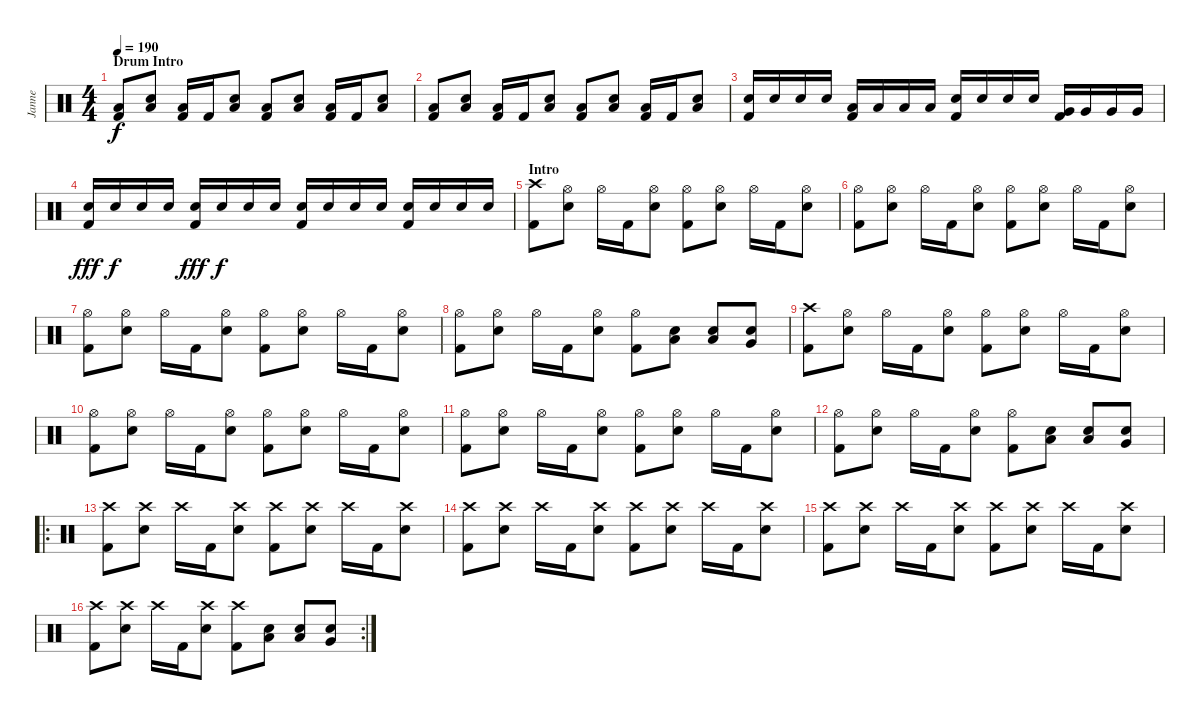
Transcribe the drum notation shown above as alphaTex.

\track ("Janne" "Janne") {instrument percussion}
\staff {score}
\articulation defaults
\ts (4 4)
\section ("" "Drum Intro")
\tempo 190
\clef neutral
\ks c
("Low Floor Tom (hit)" "Kick (hit) 2").8{dy f} ("Low Floor Tom (hit)" "Electric Snare (hit)").8 ("Low Floor Tom (hit)" "Kick (hit) 2").16 "Kick (hit) 2".16 ("Low Floor Tom (hit)" "Electric Snare (hit)").8 ("Low Floor Tom (hit)" "Kick (hit) 2").8 ("Low Floor Tom (hit)" "Electric Snare (hit)").8 ("Low Floor Tom (hit)" "Kick (hit) 2").16 "Kick (hit) 2".16 ("Low Floor Tom (hit)" "Electric Snare (hit)").8 |
("Low Floor Tom (hit)" "Kick (hit) 2").8 ("Low Floor Tom (hit)" "Electric Snare (hit)").8 ("Low Floor Tom (hit)" "Kick (hit) 2").16 "Kick (hit) 2".16 ("Low Floor Tom (hit)" "Electric Snare (hit)").8 ("Low Floor Tom (hit)" "Kick (hit) 2").8 ("Low Floor Tom (hit)" "Electric Snare (hit)").8 ("Low Floor Tom (hit)" "Kick (hit) 2").16 "Kick (hit) 2".16 ("Low Floor Tom (hit)" "Electric Snare (hit)").8 |
("Electric Snare (hit)" "Kick (hit) 2").16 "Electric Snare (hit)".16 "Electric Snare (hit)".16 "Electric Snare (hit)".16 ("Low Tom (hit)" "Kick (hit) 2").16 "Low Tom (hit)".16 "Low Tom (hit)".16 "Low Tom (hit)".16 ("Electric Snare (hit)" "Kick (hit) 2").16 "Electric Snare (hit)".16 "Electric Snare (hit)".16 "Electric Snare (hit)".16 ("Very Low Tom (hit)" "Kick (hit) 2").16 "Very Low Tom (hit)".16 "Very Low Tom (hit)".16 "Very Low Tom (hit)".16 |
("Electric Snare (hit)" "Kick (hit) 2").16{dy fff} "Electric Snare (hit)".16{dy f} "Electric Snare (hit)".16 "Electric Snare (hit)".16 ("Electric Snare (hit)" "Kick (hit) 2").16{dy fff} "Electric Snare (hit)".16{dy f} "Electric Snare (hit)".16 "Electric Snare (hit)".16 ("Electric Snare (hit)" "Kick (hit) 2").16 "Electric Snare (hit)".16 "Electric Snare (hit)".16 "Electric Snare (hit)".16 ("Electric Snare (hit)" "Kick (hit) 2").16 "Electric Snare (hit)".16 "Electric Snare (hit)".16 "Electric Snare (hit)".16 |
\section ("" "Intro")
("Crash high (hit)" "Kick (hit) 2").8 ("Hi-Hat (open)" "Electric Snare (hit)").8 "Hi-Hat (open)".16 "Kick (hit) 2".16 ("Hi-Hat (open)" "Electric Snare (hit)").8 ("Hi-Hat (open)" "Kick (hit) 2").8 ("Hi-Hat (open)" "Electric Snare (hit)").8 "Hi-Hat (open)".16 "Kick (hit) 2".16 ("Hi-Hat (open)" "Electric Snare (hit)").8 |
("Hi-Hat (open)" "Kick (hit) 2").8 ("Hi-Hat (open)" "Electric Snare (hit)").8 "Hi-Hat (open)".16 "Kick (hit) 2".16 ("Hi-Hat (open)" "Electric Snare (hit)").8 ("Hi-Hat (open)" "Kick (hit) 2").8 ("Hi-Hat (open)" "Electric Snare (hit)").8 "Hi-Hat (open)".16 "Kick (hit) 2".16 ("Hi-Hat (open)" "Electric Snare (hit)").8 |
("Hi-Hat (open)" "Kick (hit) 2").8 ("Hi-Hat (open)" "Electric Snare (hit)").8 "Hi-Hat (open)".16 "Kick (hit) 2".16 ("Hi-Hat (open)" "Electric Snare (hit)").8 ("Hi-Hat (open)" "Kick (hit) 2").8 ("Hi-Hat (open)" "Electric Snare (hit)").8 "Hi-Hat (open)".16 "Kick (hit) 2".16 ("Hi-Hat (open)" "Electric Snare (hit)").8 |
("Hi-Hat (open)" "Kick (hit) 2").8 ("Hi-Hat (open)" "Electric Snare (hit)").8 "Hi-Hat (open)".16 "Kick (hit) 2".16 ("Hi-Hat (open)" "Electric Snare (hit)").8 ("Hi-Hat (open)" "Kick (hit) 2").8 ("Low Tom (hit)" "Electric Snare (hit)").8 ("Low Tom (hit)" "Electric Snare (hit)").8 ("Very Low Tom (hit)" "Electric Snare (hit)").8 |
("Crash high (hit)" "Kick (hit) 2").8 ("Hi-Hat (open)" "Electric Snare (hit)").8 "Hi-Hat (open)".16 "Kick (hit) 2".16 ("Hi-Hat (open)" "Electric Snare (hit)").8 ("Hi-Hat (open)" "Kick (hit) 2").8 ("Hi-Hat (open)" "Electric Snare (hit)").8 "Hi-Hat (open)".16 "Kick (hit) 2".16 ("Hi-Hat (open)" "Electric Snare (hit)").8 |
("Hi-Hat (open)" "Kick (hit) 2").8 ("Hi-Hat (open)" "Electric Snare (hit)").8 "Hi-Hat (open)".16 "Kick (hit) 2".16 ("Hi-Hat (open)" "Electric Snare (hit)").8 ("Hi-Hat (open)" "Kick (hit) 2").8 ("Hi-Hat (open)" "Electric Snare (hit)").8 "Hi-Hat (open)".16 "Kick (hit) 2".16 ("Hi-Hat (open)" "Electric Snare (hit)").8 |
("Hi-Hat (open)" "Kick (hit) 2").8 ("Hi-Hat (open)" "Electric Snare (hit)").8 "Hi-Hat (open)".16 "Kick (hit) 2".16 ("Hi-Hat (open)" "Electric Snare (hit)").8 ("Hi-Hat (open)" "Kick (hit) 2").8 ("Hi-Hat (open)" "Electric Snare (hit)").8 "Hi-Hat (open)".16 "Kick (hit) 2".16 ("Hi-Hat (open)" "Electric Snare (hit)").8 |
("Hi-Hat (open)" "Kick (hit) 2").8 ("Hi-Hat (open)" "Electric Snare (hit)").8 "Hi-Hat (open)".16 "Kick (hit) 2".16 ("Hi-Hat (open)" "Electric Snare (hit)").8 ("Hi-Hat (open)" "Kick (hit) 2").8 ("Low Tom (hit)" "Electric Snare (hit)").8 ("Low Tom (hit)" "Electric Snare (hit)").8 ("Very Low Tom (hit)" "Electric Snare (hit)").8 |
\ro
("Crash high (hit)" "Kick (hit) 2").8 ("Crash high (hit)" "Electric Snare (hit)").8 "Crash high (hit)".16 "Kick (hit) 2".16 ("Crash high (hit)" "Electric Snare (hit)").8 ("Crash high (hit)" "Kick (hit) 2").8 ("Crash high (hit)" "Electric Snare (hit)").8 "Crash high (hit)".16 "Kick (hit) 2".16 ("Crash high (hit)" "Electric Snare (hit)").8 |
("Crash high (hit)" "Kick (hit) 2").8 ("Crash high (hit)" "Electric Snare (hit)").8 "Crash high (hit)".16 "Kick (hit) 2".16 ("Crash high (hit)" "Electric Snare (hit)").8 ("Crash high (hit)" "Kick (hit) 2").8 ("Crash high (hit)" "Electric Snare (hit)").8 "Crash high (hit)".16 "Kick (hit) 2".16 ("Crash high (hit)" "Electric Snare (hit)").8 |
("Crash high (hit)" "Kick (hit) 2").8 ("Crash high (hit)" "Electric Snare (hit)").8 "Crash high (hit)".16 "Kick (hit) 2".16 ("Crash high (hit)" "Electric Snare (hit)").8 ("Crash high (hit)" "Kick (hit) 2").8 ("Crash high (hit)" "Electric Snare (hit)").8 "Crash high (hit)".16 "Kick (hit) 2".16 ("Crash high (hit)" "Electric Snare (hit)").8 |
\rc 2
("Crash high (hit)" "Kick (hit) 2").8 ("Crash high (hit)" "Electric Snare (hit)").8 "Crash high (hit)".16 "Kick (hit) 2".16 ("Crash high (hit)" "Electric Snare (hit)").8 ("Crash high (hit)" "Kick (hit) 2").8 ("Low Tom (hit)" "Electric Snare (hit)").8 ("Low Tom (hit)" "Electric Snare (hit)").8 ("Very Low Tom (hit)" "Electric Snare (hit)").8
